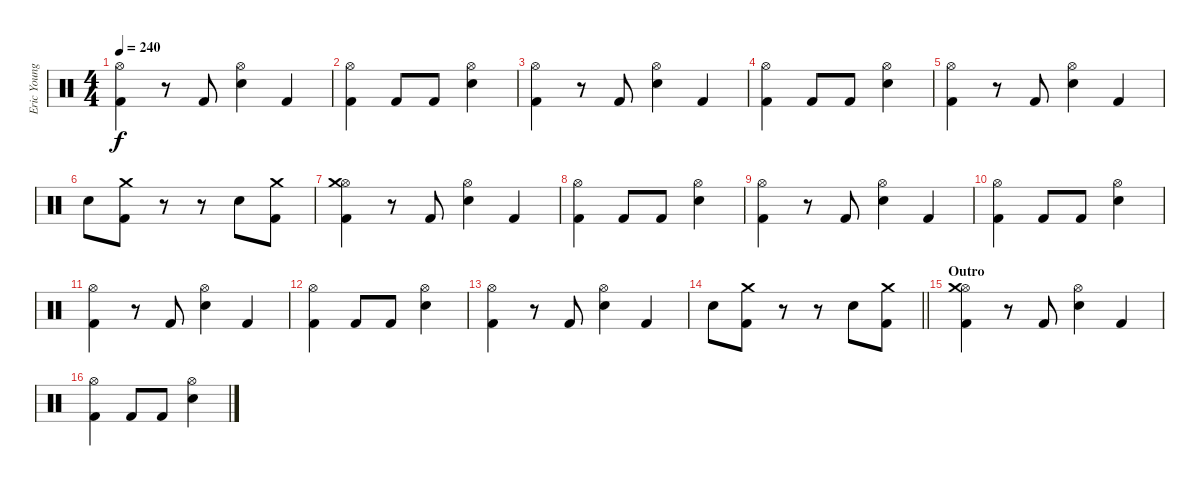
\track ("Eric Young (Drums)" "Eric Young") {instrument percussion}
\staff {score}
\articulation defaults
\ts (4 4)
\tempo 240
\clef neutral
\ks c
("Hi-Hat (open)" "Kick (hit) 2").4{dy f} r.8 "Kick (hit) 2".8 ("Hi-Hat (open)" "Snare (hit) 2").4 "Kick (hit) 2".4 |
("Hi-Hat (open)" "Kick (hit) 2").4 "Kick (hit) 2".8 "Kick (hit) 2".8 ("Hi-Hat (open)" "Snare (hit) 2").4 |
("Hi-Hat (open)" "Kick (hit) 2").4 r.8 "Kick (hit) 2".8 ("Hi-Hat (open)" "Snare (hit) 2").4 "Kick (hit) 2".4 |
("Hi-Hat (open)" "Kick (hit) 2").4 "Kick (hit) 2".8 "Kick (hit) 2".8 ("Hi-Hat (open)" "Snare (hit) 2").4 |
("Hi-Hat (open)" "Kick (hit) 2").4 r.8 "Kick (hit) 2".8 ("Hi-Hat (open)" "Snare (hit) 2").4 "Kick (hit) 2".4 |
"Snare (hit) 2".8 ("Kick (hit) 2" "Crash medium (hit)").8 r.8 r.8 "Snare (hit) 2".8 ("Kick (hit) 2" "Crash medium (hit)").8 |
("Hi-Hat (open)" "Kick (hit) 2" "Crash medium (hit)").4 r.8 "Kick (hit) 2".8 ("Hi-Hat (open)" "Snare (hit) 2").4 "Kick (hit) 2".4 |
("Hi-Hat (open)" "Kick (hit) 2").4 "Kick (hit) 2".8 "Kick (hit) 2".8 ("Hi-Hat (open)" "Snare (hit) 2").4 |
("Hi-Hat (open)" "Kick (hit) 2").4 r.8 "Kick (hit) 2".8 ("Hi-Hat (open)" "Snare (hit) 2").4 "Kick (hit) 2".4 |
("Hi-Hat (open)" "Kick (hit) 2").4 "Kick (hit) 2".8 "Kick (hit) 2".8 ("Hi-Hat (open)" "Snare (hit) 2").4 |
("Hi-Hat (open)" "Kick (hit) 2").4 r.8 "Kick (hit) 2".8 ("Hi-Hat (open)" "Snare (hit) 2").4 "Kick (hit) 2".4 |
("Hi-Hat (open)" "Kick (hit) 2").4 "Kick (hit) 2".8 "Kick (hit) 2".8 ("Hi-Hat (open)" "Snare (hit) 2").4 |
("Hi-Hat (open)" "Kick (hit) 2").4 r.8 "Kick (hit) 2".8 ("Hi-Hat (open)" "Snare (hit) 2").4 "Kick (hit) 2".4 |
\barLineRight lightlight "Snare (hit) 2".8
("Kick (hit) 2" "Crash medium (hit)").8 r.8 r.8 "Snare (hit) 2".8 ("Kick (hit) 2" "Crash medium (hit)").8 |
\section ("" "Outro")
("Hi-Hat (open)" "Kick (hit) 2" "Crash medium (hit)").4 r.8 "Kick (hit) 2".8 ("Hi-Hat (open)" "Snare (hit) 2").4 "Kick (hit) 2".4 |
("Hi-Hat (open)" "Kick (hit) 2").4 "Kick (hit) 2".8 "Kick (hit) 2".8 ("Hi-Hat (open)" "Snare (hit) 2").4
